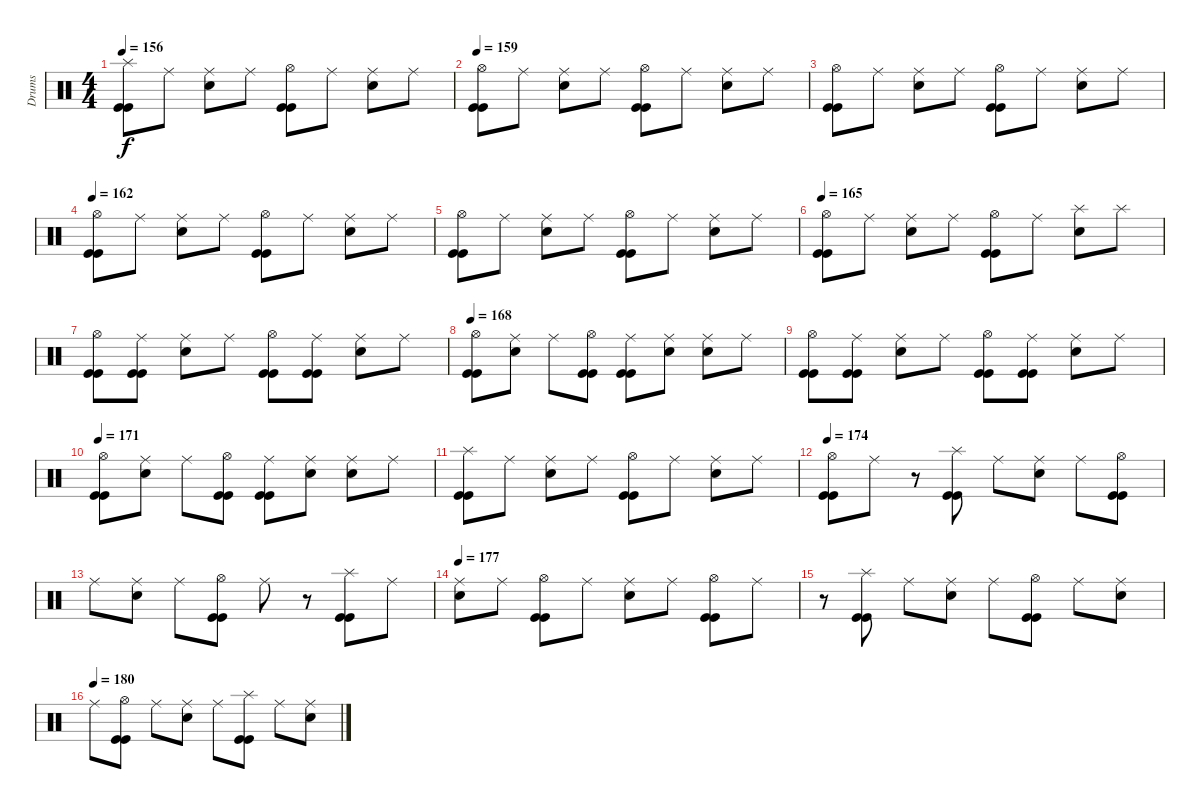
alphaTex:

\track ("Drums" "Drums") {instrument percussion}
\staff {score}
\articulation defaults
\ts (4 4)
\tempo 156
\clef neutral
\ks c
("Splash (hit)" "Kick (hit)" "Kick (hit)").8{dy f} "Ride (middle)".8 ("Ride (middle)" "Snare (hit) 2").8 "Ride (middle)".8 ("Hi-Hat (open)" "Kick (hit)" "Kick (hit)").8 "Ride (middle)".8 ("Ride (middle)" "Snare (hit) 2").8 "Ride (middle)".8 |
\tempo 159
("Hi-Hat (open)" "Kick (hit)" "Kick (hit)").8 "Ride (middle)".8 ("Ride (middle)" "Snare (hit) 2").8 "Ride (middle)".8 ("Hi-Hat (open)" "Kick (hit)" "Kick (hit)").8 "Ride (middle)".8 ("Ride (middle)" "Snare (hit) 2").8 "Ride (middle)".8 |
("Hi-Hat (open)" "Kick (hit)" "Kick (hit)").8 "Ride (middle)".8 ("Ride (middle)" "Snare (hit) 2").8 "Ride (middle)".8 ("Hi-Hat (open)" "Kick (hit)" "Kick (hit)").8 "Ride (middle)".8 ("Ride (middle)" "Snare (hit) 2").8 "Ride (middle)".8 |
\tempo 162
("Hi-Hat (open)" "Kick (hit)" "Kick (hit)").8 "Ride (middle)".8 ("Ride (middle)" "Snare (hit) 2").8 "Ride (middle)".8 ("Hi-Hat (open)" "Kick (hit)" "Kick (hit)").8 "Ride (middle)".8 ("Ride (middle)" "Snare (hit) 2").8 "Ride (middle)".8 |
("Hi-Hat (open)" "Kick (hit)" "Kick (hit)").8 "Ride (middle)".8 ("Ride (middle)" "Snare (hit) 2").8 "Ride (middle)".8 ("Hi-Hat (open)" "Kick (hit)" "Kick (hit)").8 "Ride (middle)".8 ("Ride (middle)" "Snare (hit) 2").8 "Ride (middle)".8 |
\tempo 165
("Hi-Hat (open)" "Kick (hit)" "Kick (hit)").8 "Ride (middle)".8 ("Ride (middle)" "Snare (hit) 2").8 "Ride (middle)".8 ("Hi-Hat (open)" "Kick (hit)" "Kick (hit)").8 "Ride (middle)".8 ("Splash (hit)" "Snare (hit) 2").8 "Splash (hit)".8 |
("Hi-Hat (open)" "Kick (hit)" "Kick (hit)").8 ("Ride (middle)" "Kick (hit)" "Kick (hit)").8 ("Ride (middle)" "Snare (hit) 2").8 "Ride (middle)".8 ("Hi-Hat (open)" "Kick (hit)" "Kick (hit)").8 ("Ride (middle)" "Kick (hit)" "Kick (hit)").8 ("Ride (middle)" "Snare (hit) 2").8 "Ride (middle)".8 |
\tempo 168
("Hi-Hat (open)" "Kick (hit)" "Kick (hit)").8 ("Ride (middle)" "Snare (hit) 2").8 "Ride (middle)".8 ("Hi-Hat (open)" "Kick (hit)" "Kick (hit)").8 ("Ride (middle)" "Kick (hit)" "Kick (hit)").8 ("Ride (middle)" "Snare (hit) 2").8 ("Ride (middle)" "Snare (hit) 2").8 "Ride (middle)".8 |
("Hi-Hat (open)" "Kick (hit)" "Kick (hit)").8 ("Ride (middle)" "Kick (hit)" "Kick (hit)").8 ("Ride (middle)" "Snare (hit) 2").8 "Ride (middle)".8 ("Hi-Hat (open)" "Kick (hit)" "Kick (hit)").8 ("Ride (middle)" "Kick (hit)" "Kick (hit)").8 ("Ride (middle)" "Snare (hit) 2").8 "Ride (middle)".8 |
\tempo 171
("Hi-Hat (open)" "Kick (hit)" "Kick (hit)").8 ("Ride (middle)" "Snare (hit) 2").8 "Ride (middle)".8 ("Hi-Hat (open)" "Kick (hit)" "Kick (hit)").8 ("Ride (middle)" "Kick (hit)" "Kick (hit)").8 ("Ride (middle)" "Snare (hit) 2").8 ("Ride (middle)" "Snare (hit) 2").8 "Ride (middle)".8 |
("Splash (hit)" "Kick (hit)" "Kick (hit)").8 "Ride (middle)".8 ("Ride (middle)" "Snare (hit) 2").8 "Ride (middle)".8 ("Hi-Hat (open)" "Kick (hit)" "Kick (hit)").8 "Ride (middle)".8 ("Ride (middle)" "Snare (hit) 2").8 "Ride (middle)".8 |
\tempo 174
("Hi-Hat (open)" "Kick (hit)" "Kick (hit)").8 "Ride (middle)".8 r.8 ("Splash (hit)" "Kick (hit)" "Kick (hit)").8 "Ride (middle)".8 ("Ride (middle)" "Snare (hit) 2").8 "Ride (middle)".8 ("Hi-Hat (open)" "Kick (hit)" "Kick (hit)").8 |
"Ride (middle)".8 ("Ride (middle)" "Snare (hit) 2").8 "Ride (middle)".8 ("Hi-Hat (open)" "Kick (hit)" "Kick (hit)").8 "Ride (middle)".8 r.8 ("Splash (hit)" "Kick (hit)" "Kick (hit)").8 "Ride (middle)".8 |
\tempo 177
("Ride (middle)" "Snare (hit) 2").8 "Ride (middle)".8 ("Hi-Hat (open)" "Kick (hit)" "Kick (hit)").8 "Ride (middle)".8 ("Ride (middle)" "Snare (hit) 2").8 "Ride (middle)".8 ("Hi-Hat (open)" "Kick (hit)" "Kick (hit)").8 "Ride (middle)".8 |
r.8 ("Splash (hit)" "Kick (hit)" "Kick (hit)").8 "Ride (middle)".8 ("Ride (middle)" "Snare (hit) 2").8 "Ride (middle)".8 ("Hi-Hat (open)" "Kick (hit)" "Kick (hit)").8 "Ride (middle)".8 ("Ride (middle)" "Snare (hit) 2").8 |
\tempo (180)
"Ride (middle)".8 ("Hi-Hat (open)" "Kick (hit)" "Kick (hit)").8 "Ride (middle)".8 ("Ride (middle)" "Snare (hit) 2").8 "Ride (middle)".8 ("Splash (hit)" "Kick (hit)" "Kick (hit)").8 "Ride (middle)".8 ("Ride (middle)" "Snare (hit) 2").8
